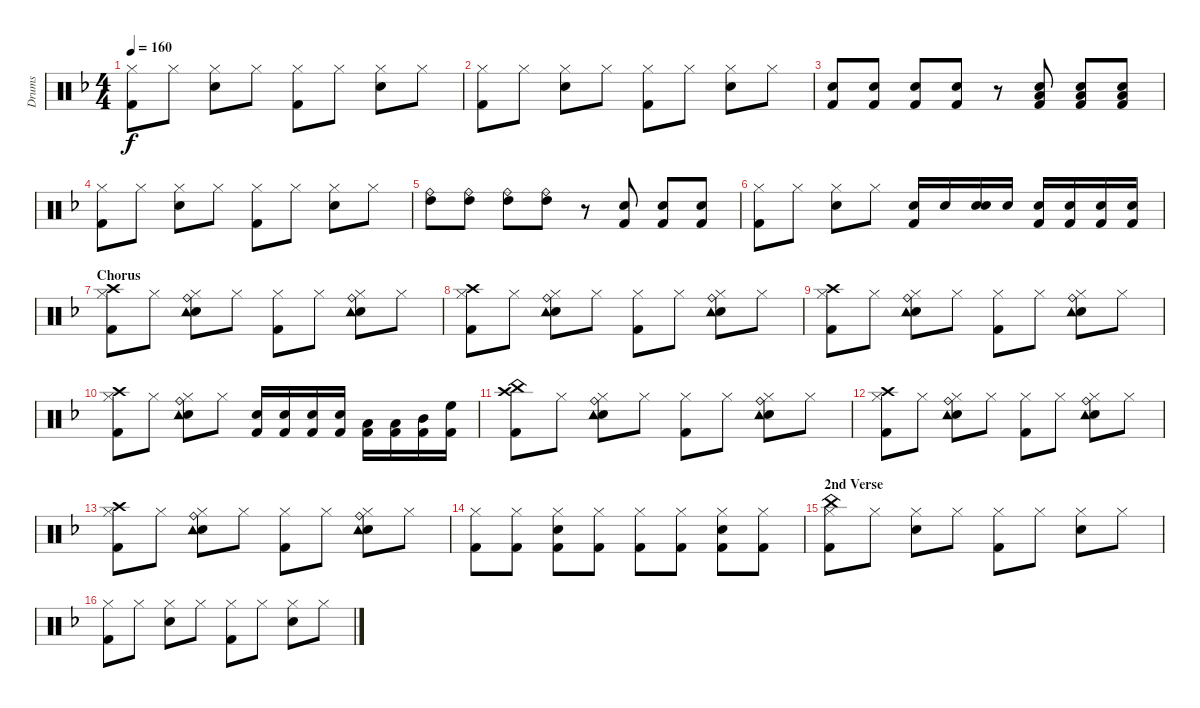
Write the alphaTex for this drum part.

\track ("Drums" "Drums") {instrument percussion}
\staff {score}
\articulation defaults
\ts (4 4)
\tempo 160
\clef neutral
\ks dminor
("Hi-Hat (closed)" "Kick (hit) 2").8{dy f} "Hi-Hat (closed)".8 ("Hi-Hat (closed)" "Electric Snare (hit)").8 "Hi-Hat (closed)".8 ("Hi-Hat (closed)" "Kick (hit) 2").8 "Hi-Hat (closed)".8 ("Hi-Hat (closed)" "Electric Snare (hit)").8 "Hi-Hat (closed)".8 |
("Hi-Hat (closed)" "Kick (hit) 2").8 "Hi-Hat (closed)".8 ("Hi-Hat (closed)" "Electric Snare (hit)").8 "Hi-Hat (closed)".8 ("Hi-Hat (closed)" "Kick (hit) 2").8 "Hi-Hat (closed)".8 ("Hi-Hat (closed)" "Electric Snare (hit)").8 "Hi-Hat (closed)".8 |
("Snare (hit) 2" "Kick (hit) 2").8 ("Snare (hit) 2" "Kick (hit) 2").8 ("Snare (hit) 2" "Kick (hit) 2").8 ("Snare (hit) 2" "Kick (hit) 2").8 r.8 ("Low Tom (hit)" "Kick (hit) 2" "Snare (hit) 2").8 ("Low Tom (hit)" "Kick (hit) 2" "Snare (hit) 2").8 ("Low Tom (hit)" "Kick (hit) 2" "Snare (hit) 2").8 |
("Hi-Hat (closed)" "Kick (hit) 2").8 "Hi-Hat (closed)".8 ("Hi-Hat (closed)" "Electric Snare (hit)").8 "Hi-Hat (closed)".8 ("Hi-Hat (closed)" "Kick (hit) 2").8 "Hi-Hat (closed)".8 ("Hi-Hat (closed)" "Electric Snare (hit)").8 "Hi-Hat (closed)".8 |
("Ride (bell)" "High Tom (hit)").8 ("Ride (bell)" "High Tom (hit)").8 ("Ride (bell)" "High Tom (hit)").8 ("Ride (bell)" "High Tom (hit)").8 r.8 ("Kick (hit) 2" "Snare (hit) 2").8 ("Kick (hit) 2" "Snare (hit) 2").8 ("Kick (hit) 2" "Snare (hit) 2").8 |
("Hi-Hat (closed)" "Kick (hit) 2").8 "Hi-Hat (closed)".8 ("Hi-Hat (closed)" "Electric Snare (hit)").8 "Hi-Hat (closed)".8 ("Snare (hit) 2" "Kick (hit) 2").16 "Snare (hit) 2".16 ("Snare (hit) 2" "Electric Snare (hit)").16 "Snare (hit) 2".16 ("Snare (hit) 2" "Kick (hit) 2").16 ("Snare (hit) 2" "Kick (hit) 2").16 ("Snare (hit) 2" "Kick (hit) 2").16 ("Snare (hit) 2" "Kick (hit) 2").16 |
\section ("" "Chorus")
("Hi-Hat (closed)" "Crash high (hit)" "Kick (hit) 2").8 "Hi-Hat (closed)".8 ("Hi-Hat (closed)" "Electric Snare (hit)" "Tambourine (hit)" "Ride (bell)").8 "Hi-Hat (closed)".8 ("Hi-Hat (closed)" "Kick (hit) 2").8 "Hi-Hat (closed)".8 ("Hi-Hat (closed)" "Electric Snare (hit)" "Tambourine (hit)" "Ride (bell)").8 "Hi-Hat (closed)".8 |
("Hi-Hat (closed)" "Crash high (hit)" "Kick (hit) 2").8 "Hi-Hat (closed)".8 ("Hi-Hat (closed)" "Electric Snare (hit)" "Tambourine (hit)" "Ride (bell)").8 "Hi-Hat (closed)".8 ("Hi-Hat (closed)" "Kick (hit) 2").8 "Hi-Hat (closed)".8 ("Hi-Hat (closed)" "Electric Snare (hit)" "Tambourine (hit)" "Ride (bell)").8 "Hi-Hat (closed)".8 |
("Hi-Hat (closed)" "Crash high (hit)" "Kick (hit) 2").8 "Hi-Hat (closed)".8 ("Hi-Hat (closed)" "Electric Snare (hit)" "Tambourine (hit)" "Ride (bell)").8 "Hi-Hat (closed)".8 ("Hi-Hat (closed)" "Kick (hit) 2").8 "Hi-Hat (closed)".8 ("Hi-Hat (closed)" "Electric Snare (hit)" "Tambourine (hit)" "Ride (bell)").8 "Hi-Hat (closed)".8 |
("Hi-Hat (closed)" "Crash high (hit)" "Kick (hit) 2").8 "Hi-Hat (closed)".8 ("Hi-Hat (closed)" "Electric Snare (hit)" "Tambourine (hit)" "Ride (bell)").8 "Hi-Hat (closed)".8 ("Snare (hit) 2" "Kick (hit) 2").16 ("Snare (hit) 2" "Kick (hit) 2").16 ("Snare (hit) 2" "Kick (hit) 2").16 ("Snare (hit) 2" "Kick (hit) 2").16 ("Low Floor Tom (hit)" "Kick (hit) 2").16 ("Low Tom (hit)" "Kick (hit) 2").16 ("Mid Tom (hit)" "Kick (hit) 2").16 ("High Floor Tom (hit)" "Kick (hit) 2").16 |
("China (hit)" "Crash high (hit)" "Kick (hit) 2").8 "Hi-Hat (closed)".8 ("Hi-Hat (closed)" "Electric Snare (hit)" "Tambourine (hit)" "Ride (bell)").8 "Hi-Hat (closed)".8 ("Hi-Hat (closed)" "Kick (hit) 2").8 "Hi-Hat (closed)".8 ("Hi-Hat (closed)" "Electric Snare (hit)" "Tambourine (hit)" "Ride (bell)").8 "Hi-Hat (closed)".8 |
("Hi-Hat (closed)" "Crash high (hit)" "Kick (hit) 2").8 "Hi-Hat (closed)".8 ("Hi-Hat (closed)" "Electric Snare (hit)" "Tambourine (hit)" "Ride (bell)").8 "Hi-Hat (closed)".8 ("Hi-Hat (closed)" "Kick (hit) 2").8 "Hi-Hat (closed)".8 ("Hi-Hat (closed)" "Electric Snare (hit)" "Tambourine (hit)" "Ride (bell)").8 "Hi-Hat (closed)".8 |
("Hi-Hat (closed)" "Crash high (hit)" "Kick (hit) 2").8 "Hi-Hat (closed)".8 ("Hi-Hat (closed)" "Electric Snare (hit)" "Tambourine (hit)" "Ride (bell)").8 "Hi-Hat (closed)".8 ("Hi-Hat (closed)" "Kick (hit) 2").8 "Hi-Hat (closed)".8 ("Hi-Hat (closed)" "Electric Snare (hit)" "Tambourine (hit)" "Ride (bell)").8 "Hi-Hat (closed)".8 |
("Hi-Hat (closed)" "Kick (hit) 2").8 ("Hi-Hat (closed)" "Kick (hit) 2").8 ("Hi-Hat (closed)" "Electric Snare (hit)" "Kick (hit) 2").8 ("Hi-Hat (closed)" "Kick (hit) 2").8 ("Hi-Hat (closed)" "Kick (hit) 2").8 ("Hi-Hat (closed)" "Kick (hit) 2").8 ("Hi-Hat (closed)" "Electric Snare (hit)" "Kick (hit) 2").8 ("Hi-Hat (closed)" "Kick (hit) 2").8 |
\section ("" "2nd Verse")
("Hi-Hat (closed)" "China (hit)" "Kick (hit) 2").8 "Hi-Hat (closed)".8 ("Hi-Hat (closed)" "Electric Snare (hit)").8 "Hi-Hat (closed)".8 ("Hi-Hat (closed)" "Kick (hit) 2").8 "Hi-Hat (closed)".8 ("Hi-Hat (closed)" "Electric Snare (hit)").8 "Hi-Hat (closed)".8 |
("Hi-Hat (closed)" "Kick (hit) 2").8 "Hi-Hat (closed)".8 ("Hi-Hat (closed)" "Electric Snare (hit)").8 "Hi-Hat (closed)".8 ("Hi-Hat (closed)" "Kick (hit) 2").8 "Hi-Hat (closed)".8 ("Hi-Hat (closed)" "Electric Snare (hit)").8 "Hi-Hat (closed)".8
